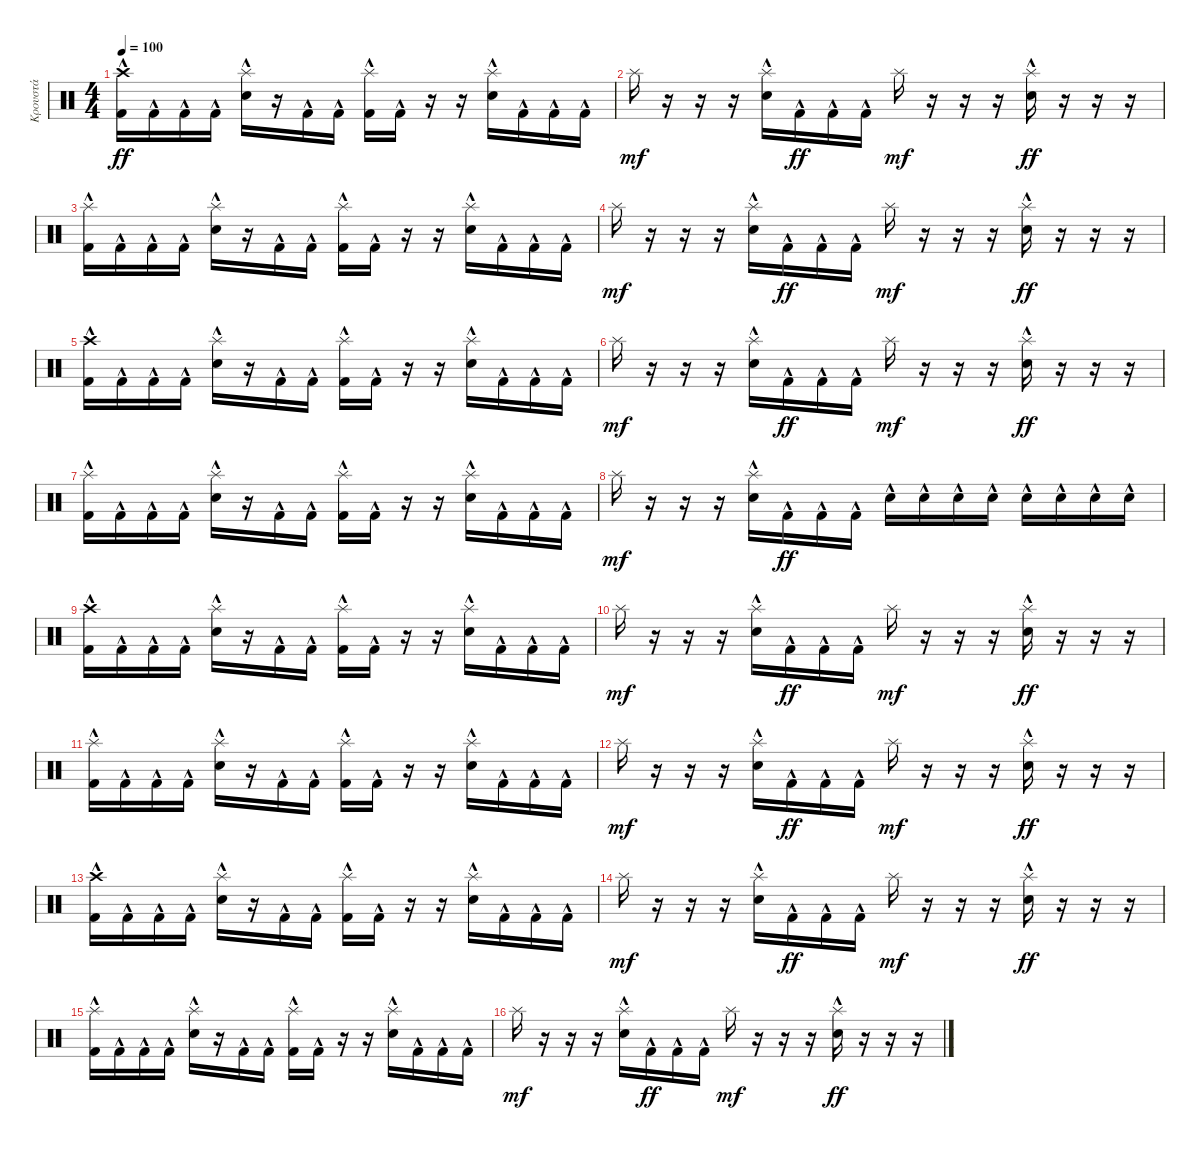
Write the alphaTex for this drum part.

\track ("Κρουστά" "Κρουστά") {instrument percussion}
\staff {score}
\articulation defaults
\ts (4 4)
\tempo 100
\clef neutral
\ks c
("Crash high (hit)" "Kick (hit) 2"{hac}).16{dy ff} "Kick (hit) 2"{hac}.16 "Kick (hit) 2"{hac}.16 "Kick (hit) 2"{hac}.16 ("Splash (hit)" "Electric Snare (hit)"{hac}).16 r.16 "Kick (hit) 2"{hac}.16 "Kick (hit) 2"{hac}.16 ("Splash (hit)" "Kick (hit) 2"{hac}).16 "Kick (hit) 2"{hac}.16 r.16 r.16 ("Splash (hit)" "Electric Snare (hit)"{hac}).16 "Kick (hit) 2"{hac}.16 "Kick (hit) 2"{hac}.16 "Kick (hit) 2"{hac}.16 |
"Splash (hit)".16{dy mf} r.16 r.16 r.16 ("Electric Snare (hit)"{hac} "Splash (hit)").16 "Kick (hit) 2"{hac}.16{dy ff} "Kick (hit) 2"{hac}.16 "Kick (hit) 2"{hac}.16 "Splash (hit)".16{dy mf} r.16 r.16 r.16 ("Splash (hit)" "Electric Snare (hit)"{hac}).16{dy ff} r.16 r.16 r.16 |
("Splash (hit)" "Kick (hit) 2"{hac}).16 "Kick (hit) 2"{hac}.16 "Kick (hit) 2"{hac}.16 "Kick (hit) 2"{hac}.16 ("Splash (hit)" "Electric Snare (hit)"{hac}).16 r.16 "Kick (hit) 2"{hac}.16 "Kick (hit) 2"{hac}.16 ("Splash (hit)" "Kick (hit) 2"{hac}).16 "Kick (hit) 2"{hac}.16 r.16 r.16 ("Splash (hit)" "Electric Snare (hit)"{hac}).16 "Kick (hit) 2"{hac}.16 "Kick (hit) 2"{hac}.16 "Kick (hit) 2"{hac}.16 |
"Splash (hit)".16{dy mf} r.16 r.16 r.16 ("Electric Snare (hit)"{hac} "Splash (hit)").16 "Kick (hit) 2"{hac}.16{dy ff} "Kick (hit) 2"{hac}.16 "Kick (hit) 2"{hac}.16 "Splash (hit)".16{dy mf} r.16 r.16 r.16 ("Splash (hit)" "Electric Snare (hit)"{hac}).16{dy ff} r.16 r.16 r.16 |
("Crash high (hit)" "Kick (hit) 2"{hac}).16 "Kick (hit) 2"{hac}.16 "Kick (hit) 2"{hac}.16 "Kick (hit) 2"{hac}.16 ("Splash (hit)" "Electric Snare (hit)"{hac}).16 r.16 "Kick (hit) 2"{hac}.16 "Kick (hit) 2"{hac}.16 ("Splash (hit)" "Kick (hit) 2"{hac}).16 "Kick (hit) 2"{hac}.16 r.16 r.16 ("Splash (hit)" "Electric Snare (hit)"{hac}).16 "Kick (hit) 2"{hac}.16 "Kick (hit) 2"{hac}.16 "Kick (hit) 2"{hac}.16 |
"Splash (hit)".16{dy mf} r.16 r.16 r.16 ("Electric Snare (hit)"{hac} "Splash (hit)").16 "Kick (hit) 2"{hac}.16{dy ff} "Kick (hit) 2"{hac}.16 "Kick (hit) 2"{hac}.16 "Splash (hit)".16{dy mf} r.16 r.16 r.16 ("Splash (hit)" "Electric Snare (hit)"{hac}).16{dy ff} r.16 r.16 r.16 |
("Splash (hit)" "Kick (hit) 2"{hac}).16 "Kick (hit) 2"{hac}.16 "Kick (hit) 2"{hac}.16 "Kick (hit) 2"{hac}.16 ("Splash (hit)" "Electric Snare (hit)"{hac}).16 r.16 "Kick (hit) 2"{hac}.16 "Kick (hit) 2"{hac}.16 ("Splash (hit)" "Kick (hit) 2"{hac}).16 "Kick (hit) 2"{hac}.16 r.16 r.16 ("Splash (hit)" "Electric Snare (hit)"{hac}).16 "Kick (hit) 2"{hac}.16 "Kick (hit) 2"{hac}.16 "Kick (hit) 2"{hac}.16 |
"Splash (hit)".16{dy mf} r.16 r.16 r.16 ("Electric Snare (hit)"{hac} "Splash (hit)").16 "Kick (hit) 2"{hac}.16{dy ff} "Kick (hit) 2"{hac}.16 "Kick (hit) 2"{hac}.16 "Electric Snare (hit)"{hac}.16 "Electric Snare (hit)"{hac}.16 "Electric Snare (hit)"{hac}.16 "Electric Snare (hit)"{hac}.16 "Electric Snare (hit)"{hac}.16 "Electric Snare (hit)"{hac}.16 "Electric Snare (hit)"{hac}.16 "Electric Snare (hit)"{hac}.16 |
("Crash high (hit)" "Kick (hit) 2"{hac}).16 "Kick (hit) 2"{hac}.16 "Kick (hit) 2"{hac}.16 "Kick (hit) 2"{hac}.16 ("Splash (hit)" "Electric Snare (hit)"{hac}).16 r.16 "Kick (hit) 2"{hac}.16 "Kick (hit) 2"{hac}.16 ("Splash (hit)" "Kick (hit) 2"{hac}).16 "Kick (hit) 2"{hac}.16 r.16 r.16 ("Splash (hit)" "Electric Snare (hit)"{hac}).16 "Kick (hit) 2"{hac}.16 "Kick (hit) 2"{hac}.16 "Kick (hit) 2"{hac}.16 |
"Splash (hit)".16{dy mf} r.16 r.16 r.16 ("Electric Snare (hit)"{hac} "Splash (hit)").16 "Kick (hit) 2"{hac}.16{dy ff} "Kick (hit) 2"{hac}.16 "Kick (hit) 2"{hac}.16 "Splash (hit)".16{dy mf} r.16 r.16 r.16 ("Splash (hit)" "Electric Snare (hit)"{hac}).16{dy ff} r.16 r.16 r.16 |
("Splash (hit)" "Kick (hit) 2"{hac}).16 "Kick (hit) 2"{hac}.16 "Kick (hit) 2"{hac}.16 "Kick (hit) 2"{hac}.16 ("Splash (hit)" "Electric Snare (hit)"{hac}).16 r.16 "Kick (hit) 2"{hac}.16 "Kick (hit) 2"{hac}.16 ("Splash (hit)" "Kick (hit) 2"{hac}).16 "Kick (hit) 2"{hac}.16 r.16 r.16 ("Splash (hit)" "Electric Snare (hit)"{hac}).16 "Kick (hit) 2"{hac}.16 "Kick (hit) 2"{hac}.16 "Kick (hit) 2"{hac}.16 |
"Splash (hit)".16{dy mf} r.16 r.16 r.16 ("Electric Snare (hit)"{hac} "Splash (hit)").16 "Kick (hit) 2"{hac}.16{dy ff} "Kick (hit) 2"{hac}.16 "Kick (hit) 2"{hac}.16 "Splash (hit)".16{dy mf} r.16 r.16 r.16 ("Splash (hit)" "Electric Snare (hit)"{hac}).16{dy ff} r.16 r.16 r.16 |
("Crash high (hit)" "Kick (hit) 2"{hac}).16 "Kick (hit) 2"{hac}.16 "Kick (hit) 2"{hac}.16 "Kick (hit) 2"{hac}.16 ("Splash (hit)" "Electric Snare (hit)"{hac}).16 r.16 "Kick (hit) 2"{hac}.16 "Kick (hit) 2"{hac}.16 ("Splash (hit)" "Kick (hit) 2"{hac}).16 "Kick (hit) 2"{hac}.16 r.16 r.16 ("Splash (hit)" "Electric Snare (hit)"{hac}).16 "Kick (hit) 2"{hac}.16 "Kick (hit) 2"{hac}.16 "Kick (hit) 2"{hac}.16 |
"Splash (hit)".16{dy mf} r.16 r.16 r.16 ("Electric Snare (hit)"{hac} "Splash (hit)").16 "Kick (hit) 2"{hac}.16{dy ff} "Kick (hit) 2"{hac}.16 "Kick (hit) 2"{hac}.16 "Splash (hit)".16{dy mf} r.16 r.16 r.16 ("Splash (hit)" "Electric Snare (hit)"{hac}).16{dy ff} r.16 r.16 r.16 |
("Splash (hit)" "Kick (hit) 2"{hac}).16 "Kick (hit) 2"{hac}.16 "Kick (hit) 2"{hac}.16 "Kick (hit) 2"{hac}.16 ("Splash (hit)" "Electric Snare (hit)"{hac}).16 r.16 "Kick (hit) 2"{hac}.16 "Kick (hit) 2"{hac}.16 ("Splash (hit)" "Kick (hit) 2"{hac}).16 "Kick (hit) 2"{hac}.16 r.16 r.16 ("Splash (hit)" "Electric Snare (hit)"{hac}).16 "Kick (hit) 2"{hac}.16 "Kick (hit) 2"{hac}.16 "Kick (hit) 2"{hac}.16 |
"Splash (hit)".16{dy mf} r.16 r.16 r.16 ("Electric Snare (hit)"{hac} "Splash (hit)").16 "Kick (hit) 2"{hac}.16{dy ff} "Kick (hit) 2"{hac}.16 "Kick (hit) 2"{hac}.16 "Splash (hit)".16{dy mf} r.16 r.16 r.16 ("Splash (hit)" "Electric Snare (hit)"{hac}).16{dy ff} r.16 r.16 r.16
